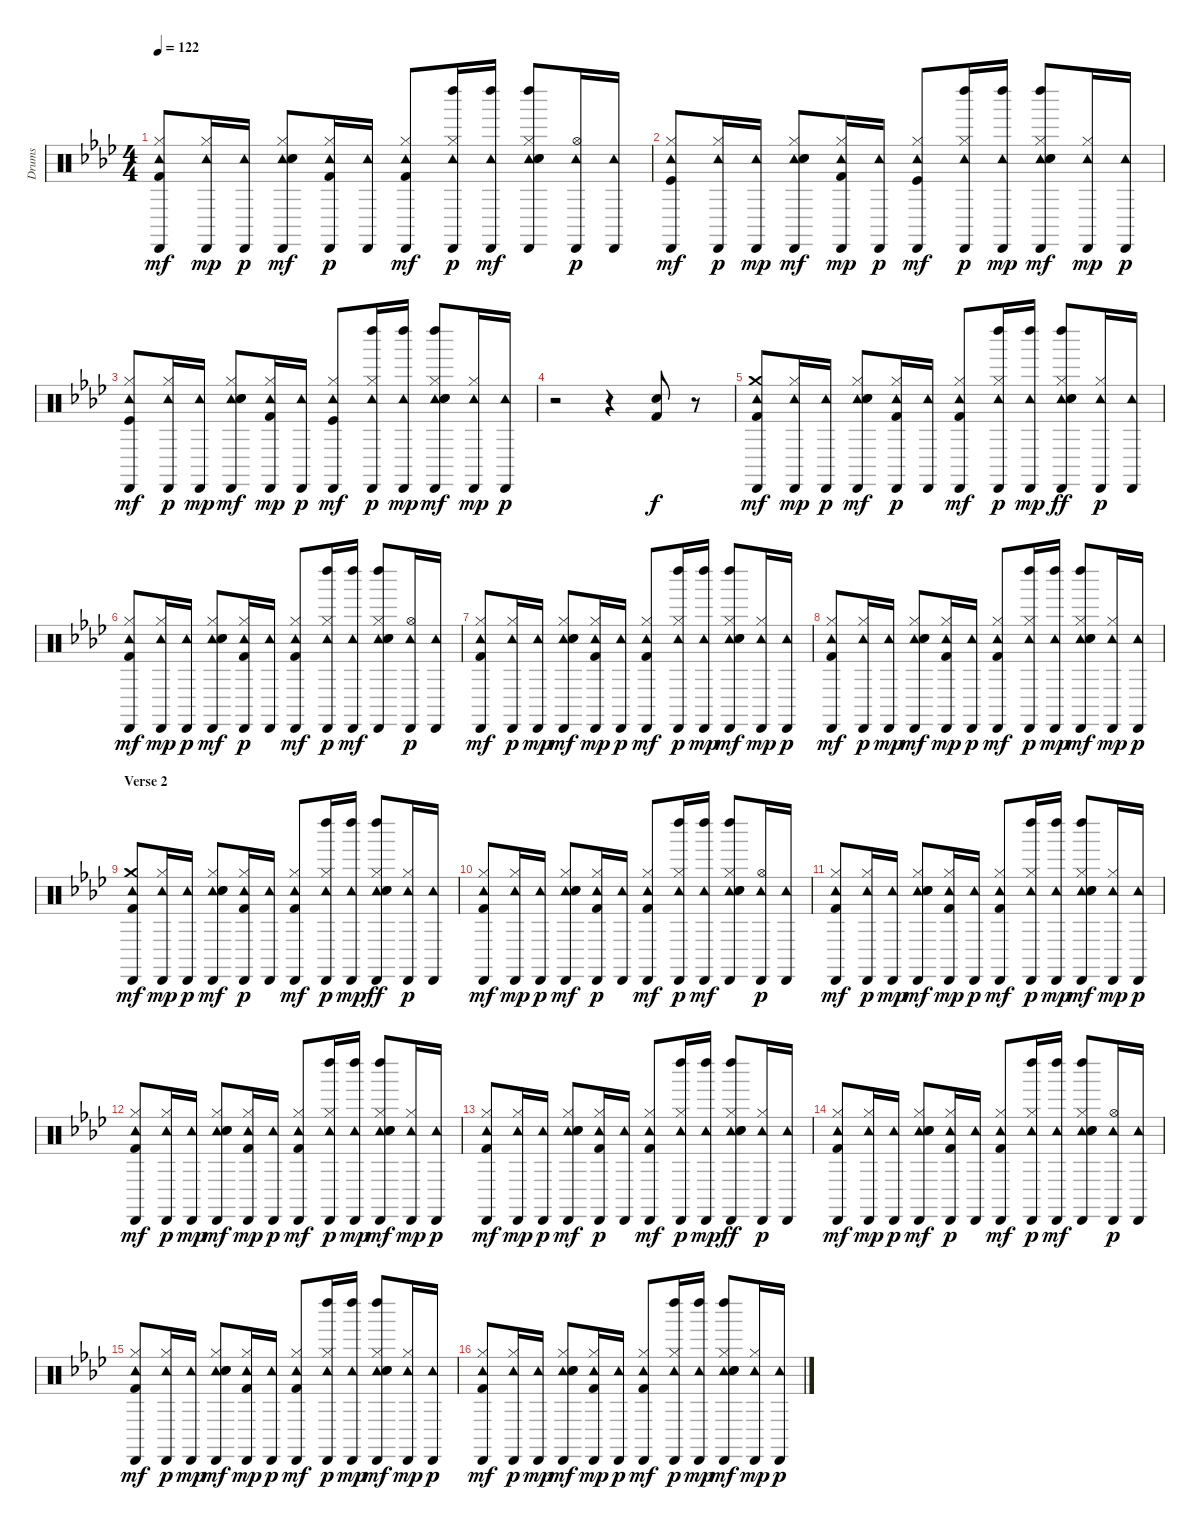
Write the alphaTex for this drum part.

\track ("Drums" "Drums") {instrument percussion}
\staff {score}
\articulation defaults
\ts (4 4)
\tempo 122
\clef neutral
\ks ab
("Hi-Hat (closed)" "Cabasa (hit)" "Tambourine (hit)" "Kick (hit) 2").8{dy mf} ("Hi-Hat (closed)" "Cabasa (hit)" "Tambourine (hit)").16{dy mp} ("Cabasa (hit)" "Tambourine (hit)").16{dy p} ("Hi-Hat (closed)" "Cabasa (hit)" "Tambourine (hit)" "Hand Clap (hit)" "Electric Snare (hit)").8{dy mf} ("Hi-Hat (closed)" "Cabasa (hit)" "Tambourine (hit)" "Kick (hit) 2").16{dy p} ("Cabasa (hit)" "Tambourine (hit)").16 ("Hi-Hat (closed)" "Cabasa (hit)" "Tambourine (hit)" "Kick (hit) 2").8{dy mf} ("Hi-Hat (closed)" "Cabasa (hit)" "Tambourine (hit)" "Left Maraca (hit)").16{dy p} ("Cabasa (hit)" "Tambourine (hit)" "Left Maraca (hit)").16{dy mf} ("Hi-Hat (closed)" "Cabasa (hit)" "Tambourine (hit)" "Left Maraca (hit)" "Electric Snare (hit)" "Hand Clap (hit)").8 ("Hi-Hat (open)" "Cabasa (hit)" "Tambourine (hit)").16{dy p} ("Cabasa (hit)" "Tambourine (hit)").16 |
("Hi-Hat (closed)" "Cabasa (hit)" "Tambourine (hit)" "Kick (hit)").8{dy mf} ("Hi-Hat (closed)" "Cabasa (hit)" "Tambourine (hit)").16{dy p} ("Cabasa (hit)" "Tambourine (hit)").16{dy mp} ("Hi-Hat (closed)" "Cabasa (hit)" "Tambourine (hit)" "Electric Snare (hit)" "Hand Clap (hit)").8{dy mf} ("Hi-Hat (closed)" "Cabasa (hit)" "Tambourine (hit)" "Kick (hit) 2").16{dy mp} ("Cabasa (hit)" "Tambourine (hit)").16{dy p} ("Hi-Hat (closed)" "Cabasa (hit)" "Tambourine (hit)" "Kick (hit)").8{dy mf} ("Hi-Hat (closed)" "Cabasa (hit)" "Tambourine (hit)" "Left Maraca (hit)").16{dy p} ("Cabasa (hit)" "Tambourine (hit)" "Left Maraca (hit)").16{dy mp} ("Hi-Hat (closed)" "Cabasa (hit)" "Tambourine (hit)" "Left Maraca (hit)" "Electric Snare (hit)" "Hand Clap (hit)").8{dy mf} ("Hi-Hat (closed)" "Cabasa (hit)" "Tambourine (hit)").16{dy mp} ("Cabasa (hit)" "Tambourine (hit)").16{dy p} |
("Hi-Hat (closed)" "Cabasa (hit)" "Tambourine (hit)" "Kick (hit)").8{dy mf} ("Hi-Hat (closed)" "Cabasa (hit)" "Tambourine (hit)").16{dy p} ("Cabasa (hit)" "Tambourine (hit)").16{dy mp} ("Hi-Hat (closed)" "Cabasa (hit)" "Tambourine (hit)" "Electric Snare (hit)" "Hand Clap (hit)").8{dy mf} ("Hi-Hat (closed)" "Cabasa (hit)" "Tambourine (hit)" "Kick (hit) 2").16{dy mp} ("Cabasa (hit)" "Tambourine (hit)").16{dy p} ("Hi-Hat (closed)" "Cabasa (hit)" "Tambourine (hit)" "Kick (hit)").8{dy mf} ("Hi-Hat (closed)" "Cabasa (hit)" "Tambourine (hit)" "Left Maraca (hit)").16{dy p} ("Cabasa (hit)" "Tambourine (hit)" "Left Maraca (hit)").16{dy mp} ("Hi-Hat (closed)" "Cabasa (hit)" "Tambourine (hit)" "Left Maraca (hit)" "Electric Snare (hit)" "Hand Clap (hit)").8{dy mf} ("Hi-Hat (closed)" "Cabasa (hit)" "Tambourine (hit)").16{dy mp} ("Cabasa (hit)" "Tambourine (hit)").16{dy p} |
r.2 r.4 ("Electric Snare (hit)" "Kick (hit) 2").8{dy f} r.8 |
("Crash medium (hit)" "Cabasa (hit)" "Tambourine (hit)" "Kick (hit) 2").8{dy mf} ("Hi-Hat (closed)" "Cabasa (hit)" "Tambourine (hit)").16{dy mp} ("Cabasa (hit)" "Tambourine (hit)").16{dy p} ("Hi-Hat (closed)" "Cabasa (hit)" "Tambourine (hit)" "Hand Clap (hit)" "Electric Snare (hit)").8{dy mf} ("Hi-Hat (closed)" "Cabasa (hit)" "Tambourine (hit)" "Kick (hit) 2").16{dy p} ("Cabasa (hit)" "Tambourine (hit)").16 ("Hi-Hat (closed)" "Cabasa (hit)" "Tambourine (hit)" "Kick (hit) 2").8{dy mf} ("Hi-Hat (closed)" "Cabasa (hit)" "Tambourine (hit)" "Left Maraca (hit)").16{dy p} ("Cabasa (hit)" "Tambourine (hit)" "Left Maraca (hit)").16{dy mp} ("Hi-Hat (closed)" "Cabasa (hit)" "Tambourine (hit)" "Left Maraca (hit)" "Electric Snare (hit)" "Hand Clap (hit)").8{dy ff} ("Hi-Hat (closed)" "Cabasa (hit)" "Tambourine (hit)").16{dy p} ("Cabasa (hit)" "Tambourine (hit)").16 |
("Hi-Hat (closed)" "Cabasa (hit)" "Tambourine (hit)" "Kick (hit) 2").8{dy mf} ("Hi-Hat (closed)" "Cabasa (hit)" "Tambourine (hit)").16{dy mp} ("Cabasa (hit)" "Tambourine (hit)").16{dy p} ("Hi-Hat (closed)" "Cabasa (hit)" "Tambourine (hit)" "Hand Clap (hit)" "Electric Snare (hit)").8{dy mf} ("Hi-Hat (closed)" "Cabasa (hit)" "Tambourine (hit)" "Kick (hit) 2").16{dy p} ("Cabasa (hit)" "Tambourine (hit)").16 ("Hi-Hat (closed)" "Cabasa (hit)" "Tambourine (hit)" "Kick (hit) 2").8{dy mf} ("Hi-Hat (closed)" "Cabasa (hit)" "Tambourine (hit)" "Left Maraca (hit)").16{dy p} ("Cabasa (hit)" "Tambourine (hit)" "Left Maraca (hit)").16{dy mf} ("Hi-Hat (closed)" "Cabasa (hit)" "Tambourine (hit)" "Left Maraca (hit)" "Electric Snare (hit)" "Hand Clap (hit)").8 ("Hi-Hat (open)" "Cabasa (hit)" "Tambourine (hit)").16{dy p} ("Cabasa (hit)" "Tambourine (hit)").16 |
("Hi-Hat (closed)" "Cabasa (hit)" "Tambourine (hit)" "Kick (hit) 2").8{dy mf} ("Hi-Hat (closed)" "Cabasa (hit)" "Tambourine (hit)").16{dy p} ("Cabasa (hit)" "Tambourine (hit)").16{dy mp} ("Hi-Hat (closed)" "Cabasa (hit)" "Tambourine (hit)" "Electric Snare (hit)" "Hand Clap (hit)").8{dy mf} ("Hi-Hat (closed)" "Cabasa (hit)" "Tambourine (hit)" "Kick (hit) 2").16{dy mp} ("Cabasa (hit)" "Tambourine (hit)").16{dy p} ("Hi-Hat (closed)" "Cabasa (hit)" "Tambourine (hit)" "Kick (hit) 2").8{dy mf} ("Hi-Hat (closed)" "Cabasa (hit)" "Tambourine (hit)" "Left Maraca (hit)").16{dy p} ("Cabasa (hit)" "Tambourine (hit)" "Left Maraca (hit)").16{dy mp} ("Hi-Hat (closed)" "Cabasa (hit)" "Tambourine (hit)" "Left Maraca (hit)" "Electric Snare (hit)" "Hand Clap (hit)").8{dy mf} ("Hi-Hat (closed)" "Cabasa (hit)" "Tambourine (hit)").16{dy mp} ("Cabasa (hit)" "Tambourine (hit)").16{dy p} |
("Hi-Hat (closed)" "Cabasa (hit)" "Tambourine (hit)" "Kick (hit) 2").8{dy mf} ("Hi-Hat (closed)" "Cabasa (hit)" "Tambourine (hit)").16{dy p} ("Cabasa (hit)" "Tambourine (hit)").16{dy mp} ("Hi-Hat (closed)" "Cabasa (hit)" "Tambourine (hit)" "Electric Snare (hit)" "Hand Clap (hit)").8{dy mf} ("Hi-Hat (closed)" "Cabasa (hit)" "Tambourine (hit)" "Kick (hit) 2").16{dy mp} ("Cabasa (hit)" "Tambourine (hit)").16{dy p} ("Hi-Hat (closed)" "Cabasa (hit)" "Tambourine (hit)" "Kick (hit) 2").8{dy mf} ("Hi-Hat (closed)" "Cabasa (hit)" "Tambourine (hit)" "Left Maraca (hit)").16{dy p} ("Cabasa (hit)" "Tambourine (hit)" "Left Maraca (hit)").16{dy mp} ("Hi-Hat (closed)" "Cabasa (hit)" "Tambourine (hit)" "Left Maraca (hit)" "Electric Snare (hit)" "Hand Clap (hit)").8{dy mf} ("Hi-Hat (closed)" "Cabasa (hit)" "Tambourine (hit)").16{dy mp} ("Cabasa (hit)" "Tambourine (hit)").16{dy p} |
\section ("" "Verse 2")
("Crash medium (hit)" "Cabasa (hit)" "Tambourine (hit)" "Kick (hit) 2").8{dy mf} ("Hi-Hat (closed)" "Cabasa (hit)" "Tambourine (hit)").16{dy mp} ("Cabasa (hit)" "Tambourine (hit)").16{dy p} ("Hi-Hat (closed)" "Cabasa (hit)" "Tambourine (hit)" "Hand Clap (hit)" "Electric Snare (hit)").8{dy mf} ("Hi-Hat (closed)" "Cabasa (hit)" "Tambourine (hit)" "Kick (hit) 2").16{dy p} ("Cabasa (hit)" "Tambourine (hit)").16 ("Hi-Hat (closed)" "Cabasa (hit)" "Tambourine (hit)" "Kick (hit) 2").8{dy mf} ("Hi-Hat (closed)" "Cabasa (hit)" "Tambourine (hit)" "Left Maraca (hit)").16{dy p} ("Cabasa (hit)" "Tambourine (hit)" "Left Maraca (hit)").16{dy mp} ("Hi-Hat (closed)" "Cabasa (hit)" "Tambourine (hit)" "Left Maraca (hit)" "Electric Snare (hit)" "Hand Clap (hit)").8{dy ff} ("Hi-Hat (closed)" "Cabasa (hit)" "Tambourine (hit)").16{dy p} ("Cabasa (hit)" "Tambourine (hit)").16 |
("Hi-Hat (closed)" "Cabasa (hit)" "Tambourine (hit)" "Kick (hit) 2").8{dy mf} ("Hi-Hat (closed)" "Cabasa (hit)" "Tambourine (hit)").16{dy mp} ("Cabasa (hit)" "Tambourine (hit)").16{dy p} ("Hi-Hat (closed)" "Cabasa (hit)" "Tambourine (hit)" "Hand Clap (hit)" "Electric Snare (hit)").8{dy mf} ("Hi-Hat (closed)" "Cabasa (hit)" "Tambourine (hit)" "Kick (hit) 2").16{dy p} ("Cabasa (hit)" "Tambourine (hit)").16 ("Hi-Hat (closed)" "Cabasa (hit)" "Tambourine (hit)" "Kick (hit) 2").8{dy mf} ("Hi-Hat (closed)" "Cabasa (hit)" "Tambourine (hit)" "Left Maraca (hit)").16{dy p} ("Cabasa (hit)" "Tambourine (hit)" "Left Maraca (hit)").16{dy mf} ("Hi-Hat (closed)" "Cabasa (hit)" "Tambourine (hit)" "Left Maraca (hit)" "Electric Snare (hit)" "Hand Clap (hit)").8 ("Hi-Hat (open)" "Cabasa (hit)" "Tambourine (hit)").16{dy p} ("Cabasa (hit)" "Tambourine (hit)").16 |
("Hi-Hat (closed)" "Cabasa (hit)" "Tambourine (hit)" "Kick (hit) 2").8{dy mf} ("Hi-Hat (closed)" "Cabasa (hit)" "Tambourine (hit)").16{dy p} ("Cabasa (hit)" "Tambourine (hit)").16{dy mp} ("Hi-Hat (closed)" "Cabasa (hit)" "Tambourine (hit)" "Electric Snare (hit)" "Hand Clap (hit)").8{dy mf} ("Hi-Hat (closed)" "Cabasa (hit)" "Tambourine (hit)" "Kick (hit) 2").16{dy mp} ("Cabasa (hit)" "Tambourine (hit)").16{dy p} ("Hi-Hat (closed)" "Cabasa (hit)" "Tambourine (hit)" "Kick (hit) 2").8{dy mf} ("Hi-Hat (closed)" "Cabasa (hit)" "Tambourine (hit)" "Left Maraca (hit)").16{dy p} ("Cabasa (hit)" "Tambourine (hit)" "Left Maraca (hit)").16{dy mp} ("Hi-Hat (closed)" "Cabasa (hit)" "Tambourine (hit)" "Left Maraca (hit)" "Electric Snare (hit)" "Hand Clap (hit)").8{dy mf} ("Hi-Hat (closed)" "Cabasa (hit)" "Tambourine (hit)").16{dy mp} ("Cabasa (hit)" "Tambourine (hit)").16{dy p} |
("Hi-Hat (closed)" "Cabasa (hit)" "Tambourine (hit)" "Kick (hit) 2").8{dy mf} ("Hi-Hat (closed)" "Cabasa (hit)" "Tambourine (hit)").16{dy p} ("Cabasa (hit)" "Tambourine (hit)").16{dy mp} ("Hi-Hat (closed)" "Cabasa (hit)" "Tambourine (hit)" "Electric Snare (hit)" "Hand Clap (hit)").8{dy mf} ("Hi-Hat (closed)" "Cabasa (hit)" "Tambourine (hit)" "Kick (hit) 2").16{dy mp} ("Cabasa (hit)" "Tambourine (hit)").16{dy p} ("Hi-Hat (closed)" "Cabasa (hit)" "Tambourine (hit)" "Kick (hit) 2").8{dy mf} ("Hi-Hat (closed)" "Cabasa (hit)" "Tambourine (hit)" "Left Maraca (hit)").16{dy p} ("Cabasa (hit)" "Tambourine (hit)" "Left Maraca (hit)").16{dy mp} ("Hi-Hat (closed)" "Cabasa (hit)" "Tambourine (hit)" "Left Maraca (hit)" "Electric Snare (hit)" "Hand Clap (hit)").8{dy mf} ("Hi-Hat (closed)" "Cabasa (hit)" "Tambourine (hit)").16{dy mp} ("Cabasa (hit)" "Tambourine (hit)").16{dy p} |
("Hi-Hat (closed)" "Cabasa (hit)" "Tambourine (hit)" "Kick (hit) 2").8{dy mf} ("Hi-Hat (closed)" "Cabasa (hit)" "Tambourine (hit)").16{dy mp} ("Cabasa (hit)" "Tambourine (hit)").16{dy p} ("Hi-Hat (closed)" "Cabasa (hit)" "Tambourine (hit)" "Hand Clap (hit)" "Electric Snare (hit)").8{dy mf} ("Hi-Hat (closed)" "Cabasa (hit)" "Tambourine (hit)" "Kick (hit) 2").16{dy p} ("Cabasa (hit)" "Tambourine (hit)").16 ("Hi-Hat (closed)" "Cabasa (hit)" "Tambourine (hit)" "Kick (hit) 2").8{dy mf} ("Hi-Hat (closed)" "Cabasa (hit)" "Tambourine (hit)" "Left Maraca (hit)").16{dy p} ("Cabasa (hit)" "Tambourine (hit)" "Left Maraca (hit)").16{dy mp} ("Hi-Hat (closed)" "Cabasa (hit)" "Tambourine (hit)" "Left Maraca (hit)" "Electric Snare (hit)" "Hand Clap (hit)").8{dy ff} ("Hi-Hat (closed)" "Cabasa (hit)" "Tambourine (hit)").16{dy p} ("Cabasa (hit)" "Tambourine (hit)").16 |
("Hi-Hat (closed)" "Cabasa (hit)" "Tambourine (hit)" "Kick (hit) 2").8{dy mf} ("Hi-Hat (closed)" "Cabasa (hit)" "Tambourine (hit)").16{dy mp} ("Cabasa (hit)" "Tambourine (hit)").16{dy p} ("Hi-Hat (closed)" "Cabasa (hit)" "Tambourine (hit)" "Hand Clap (hit)" "Electric Snare (hit)").8{dy mf} ("Hi-Hat (closed)" "Cabasa (hit)" "Tambourine (hit)" "Kick (hit) 2").16{dy p} ("Cabasa (hit)" "Tambourine (hit)").16 ("Hi-Hat (closed)" "Cabasa (hit)" "Tambourine (hit)" "Kick (hit) 2").8{dy mf} ("Hi-Hat (closed)" "Cabasa (hit)" "Tambourine (hit)" "Left Maraca (hit)").16{dy p} ("Cabasa (hit)" "Tambourine (hit)" "Left Maraca (hit)").16{dy mf} ("Hi-Hat (closed)" "Cabasa (hit)" "Tambourine (hit)" "Left Maraca (hit)" "Electric Snare (hit)" "Hand Clap (hit)").8 ("Hi-Hat (open)" "Cabasa (hit)" "Tambourine (hit)").16{dy p} ("Cabasa (hit)" "Tambourine (hit)").16 |
("Hi-Hat (closed)" "Cabasa (hit)" "Tambourine (hit)" "Kick (hit) 2").8{dy mf} ("Hi-Hat (closed)" "Cabasa (hit)" "Tambourine (hit)").16{dy p} ("Cabasa (hit)" "Tambourine (hit)").16{dy mp} ("Hi-Hat (closed)" "Cabasa (hit)" "Tambourine (hit)" "Electric Snare (hit)" "Hand Clap (hit)").8{dy mf} ("Hi-Hat (closed)" "Cabasa (hit)" "Tambourine (hit)" "Kick (hit) 2").16{dy mp} ("Cabasa (hit)" "Tambourine (hit)").16{dy p} ("Hi-Hat (closed)" "Cabasa (hit)" "Tambourine (hit)" "Kick (hit) 2").8{dy mf} ("Hi-Hat (closed)" "Cabasa (hit)" "Tambourine (hit)" "Left Maraca (hit)").16{dy p} ("Cabasa (hit)" "Tambourine (hit)" "Left Maraca (hit)").16{dy mp} ("Hi-Hat (closed)" "Cabasa (hit)" "Tambourine (hit)" "Left Maraca (hit)" "Electric Snare (hit)" "Hand Clap (hit)").8{dy mf} ("Hi-Hat (closed)" "Cabasa (hit)" "Tambourine (hit)").16{dy mp} ("Cabasa (hit)" "Tambourine (hit)").16{dy p} |
("Hi-Hat (closed)" "Cabasa (hit)" "Tambourine (hit)" "Kick (hit) 2").8{dy mf} ("Hi-Hat (closed)" "Cabasa (hit)" "Tambourine (hit)").16{dy p} ("Cabasa (hit)" "Tambourine (hit)").16{dy mp} ("Hi-Hat (closed)" "Cabasa (hit)" "Tambourine (hit)" "Electric Snare (hit)" "Hand Clap (hit)").8{dy mf} ("Hi-Hat (closed)" "Cabasa (hit)" "Tambourine (hit)" "Kick (hit) 2").16{dy mp} ("Cabasa (hit)" "Tambourine (hit)").16{dy p} ("Hi-Hat (closed)" "Cabasa (hit)" "Tambourine (hit)" "Kick (hit) 2").8{dy mf} ("Hi-Hat (closed)" "Cabasa (hit)" "Tambourine (hit)" "Left Maraca (hit)").16{dy p} ("Cabasa (hit)" "Tambourine (hit)" "Left Maraca (hit)").16{dy mp} ("Hi-Hat (closed)" "Cabasa (hit)" "Tambourine (hit)" "Left Maraca (hit)" "Electric Snare (hit)" "Hand Clap (hit)").8{dy mf} ("Hi-Hat (closed)" "Cabasa (hit)" "Tambourine (hit)").16{dy mp} ("Cabasa (hit)" "Tambourine (hit)").16{dy p}
